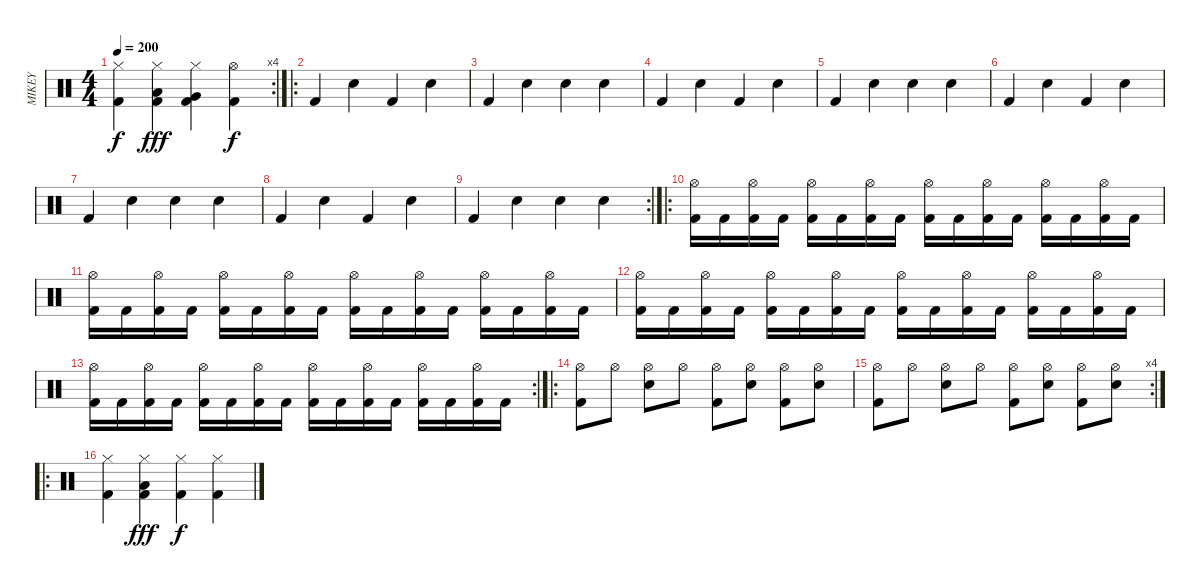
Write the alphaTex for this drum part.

\track ("MIKEY" "MIKEY") {instrument percussion}
\staff {score}
\articulation defaults
\rc 4
\ts (4 4)
\tempo 200
\clef neutral
\ks c
("Hi-Hat (closed)" "Kick (hit) 2").4{dy f} ("Hi-Hat (closed)" "Low Tom (hit)" "Kick (hit) 2").4{dy fff} ("Hi-Hat (closed)" "Very Low Tom (hit)" "Kick (hit) 2").4 ("Hi-Hat (open)" "Kick (hit) 2").4{dy f} |
\ro "Kick (hit) 2".4 "Snare (hit) 2".4 "Kick (hit) 2".4 "Snare (hit) 2".4
|
"Kick (hit) 2".4 "Snare (hit) 2".4 "Snare (hit) 2".4 "Snare (hit) 2".4 |
"Kick (hit) 2".4 "Snare (hit) 2".4 "Kick (hit) 2".4 "Snare (hit) 2".4 |
"Kick (hit) 2".4 "Snare (hit) 2".4 "Snare (hit) 2".4 "Snare (hit) 2".4 |
"Kick (hit) 2".4 "Snare (hit) 2".4 "Kick (hit) 2".4 "Snare (hit) 2".4 |
"Kick (hit) 2".4 "Snare (hit) 2".4 "Snare (hit) 2".4 "Snare (hit) 2".4 |
"Kick (hit) 2".4 "Snare (hit) 2".4 "Kick (hit) 2".4 "Snare (hit) 2".4 |
\rc 2 "Kick (hit) 2".4 "Snare (hit) 2".4 "Snare (hit) 2".4 "Snare (hit) 2".4
|
\ro
("Hi-Hat (open)" "Kick (hit) 2").16 "Kick (hit) 2".16 ("Hi-Hat (open)" "Kick (hit) 2").16 "Kick (hit) 2".16 ("Hi-Hat (open)" "Kick (hit) 2").16 "Kick (hit) 2".16 ("Hi-Hat (open)" "Kick (hit) 2").16 "Kick (hit) 2".16 ("Hi-Hat (open)" "Kick (hit) 2").16 "Kick (hit) 2".16 ("Hi-Hat (open)" "Kick (hit) 2").16 "Kick (hit) 2".16 ("Hi-Hat (open)" "Kick (hit) 2").16 "Kick (hit) 2".16 ("Hi-Hat (open)" "Kick (hit) 2").16 "Kick (hit) 2".16 |
("Hi-Hat (open)" "Kick (hit) 2").16 "Kick (hit) 2".16 ("Hi-Hat (open)" "Kick (hit) 2").16 "Kick (hit) 2".16 ("Hi-Hat (open)" "Kick (hit) 2").16 "Kick (hit) 2".16 ("Hi-Hat (open)" "Kick (hit) 2").16 "Kick (hit) 2".16 ("Hi-Hat (open)" "Kick (hit) 2").16 "Kick (hit) 2".16 ("Hi-Hat (open)" "Kick (hit) 2").16 "Kick (hit) 2".16 ("Hi-Hat (open)" "Kick (hit) 2").16 "Kick (hit) 2".16 ("Hi-Hat (open)" "Kick (hit) 2").16 "Kick (hit) 2".16 |
("Hi-Hat (open)" "Kick (hit) 2").16 "Kick (hit) 2".16 ("Hi-Hat (open)" "Kick (hit) 2").16 "Kick (hit) 2".16 ("Hi-Hat (open)" "Kick (hit) 2").16 "Kick (hit) 2".16 ("Hi-Hat (open)" "Kick (hit) 2").16 "Kick (hit) 2".16 ("Hi-Hat (open)" "Kick (hit) 2").16 "Kick (hit) 2".16 ("Hi-Hat (open)" "Kick (hit) 2").16 "Kick (hit) 2".16 ("Hi-Hat (open)" "Kick (hit) 2").16 "Kick (hit) 2".16 ("Hi-Hat (open)" "Kick (hit) 2").16 "Kick (hit) 2".16 |
\rc 2
("Hi-Hat (open)" "Kick (hit) 2").16 "Kick (hit) 2".16 ("Hi-Hat (open)" "Kick (hit) 2").16 "Kick (hit) 2".16 ("Hi-Hat (open)" "Kick (hit) 2").16 "Kick (hit) 2".16 ("Hi-Hat (open)" "Kick (hit) 2").16 "Kick (hit) 2".16 ("Hi-Hat (open)" "Kick (hit) 2").16 "Kick (hit) 2".16 ("Hi-Hat (open)" "Kick (hit) 2").16 "Kick (hit) 2".16 ("Hi-Hat (open)" "Kick (hit) 2").16 "Kick (hit) 2".16 ("Hi-Hat (open)" "Kick (hit) 2").16 "Kick (hit) 2".16 |
\ro
("Hi-Hat (open)" "Kick (hit) 2").8 "Hi-Hat (open)".8 ("Hi-Hat (open)" "Electric Snare (hit)").8 "Hi-Hat (open)".8 ("Hi-Hat (open)" "Kick (hit) 2").8 ("Hi-Hat (open)" "Electric Snare (hit)").8 ("Hi-Hat (open)" "Kick (hit) 2").8 ("Hi-Hat (open)" "Electric Snare (hit)").8 |
\rc 4
("Hi-Hat (open)" "Kick (hit) 2").8 "Hi-Hat (open)".8 ("Hi-Hat (open)" "Electric Snare (hit)").8 "Hi-Hat (open)".8 ("Hi-Hat (open)" "Kick (hit) 2").8 ("Hi-Hat (open)" "Electric Snare (hit)").8 ("Hi-Hat (open)" "Kick (hit) 2").8 ("Hi-Hat (open)" "Electric Snare (hit)").8 |
\ro
("Hi-Hat (closed)" "Kick (hit) 2").4 ("Hi-Hat (closed)" "Low Tom (hit)" "Kick (hit) 2").4{dy fff} ("Hi-Hat (closed)" "Kick (hit) 2").4{dy f} ("Hi-Hat (closed)" "Kick (hit) 2").4
